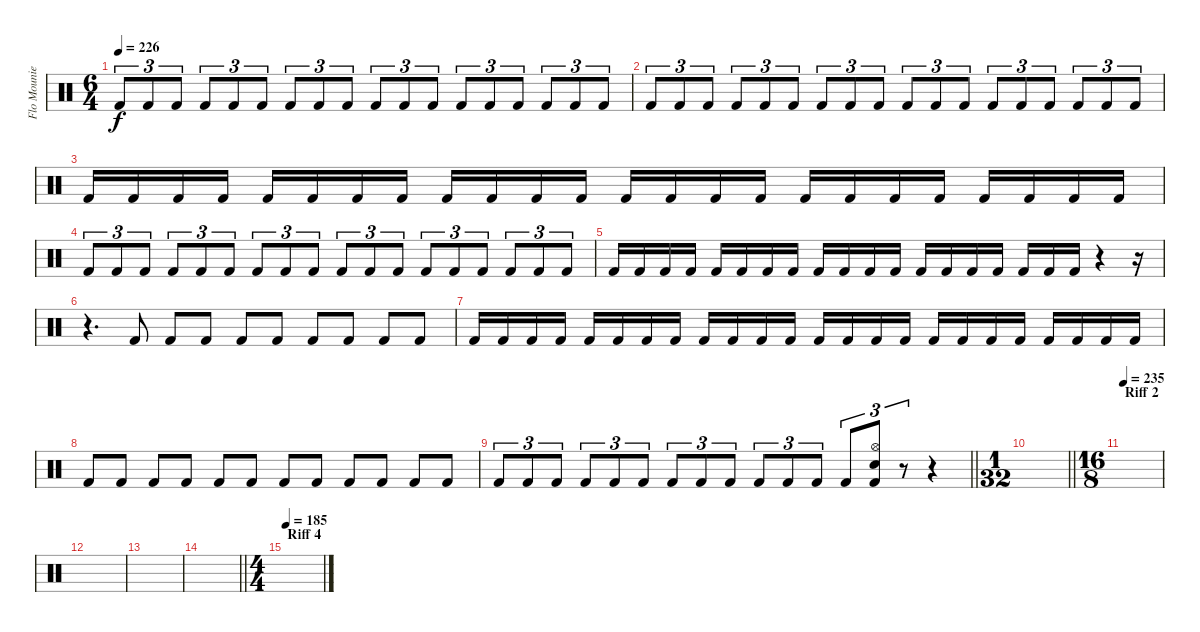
\track ("Flo Mounier " "Flo Mounie") {instrument percussion}
\staff {score}
\articulation defaults
\ts (6 4)
\tempo 226
\clef neutral
\ks c "Kick (hit) 2".8{tu (3 2) dy f} "Kick (hit) 2".8{tu (3 2)} "Kick (hit) 2".8{tu (3 2)} "Kick (hit) 2".8{tu (3 2)} "Kick (hit) 2".8{tu (3 2)} "Kick (hit) 2".8{tu (3 2)} "Kick (hit) 2".8{tu (3 2)} "Kick (hit) 2".8{tu (3 2)} "Kick (hit) 2".8{tu (3 2)} "Kick (hit) 2".8{tu (3 2)} "Kick (hit) 2".8{tu (3 2)} "Kick (hit) 2".8{tu (3 2)} "Kick (hit) 2".8{tu (3 2)} "Kick (hit) 2".8{tu (3 2)} "Kick (hit) 2".8{tu (3 2)} "Kick (hit) 2".8{tu (3 2)} "Kick (hit) 2".8{tu (3 2)} "Kick (hit) 2".8{tu (3 2)}
|
"Kick (hit) 2".8{tu (3 2)} "Kick (hit) 2".8{tu (3 2)} "Kick (hit) 2".8{tu (3 2)} "Kick (hit) 2".8{tu (3 2)} "Kick (hit) 2".8{tu (3 2)} "Kick (hit) 2".8{tu (3 2)} "Kick (hit) 2".8{tu (3 2)} "Kick (hit) 2".8{tu (3 2)} "Kick (hit) 2".8{tu (3 2)} "Kick (hit) 2".8{tu (3 2)} "Kick (hit) 2".8{tu (3 2)} "Kick (hit) 2".8{tu (3 2)} "Kick (hit) 2".8{tu (3 2)} "Kick (hit) 2".8{tu (3 2)} "Kick (hit) 2".8{tu (3 2)} "Kick (hit) 2".8{tu (3 2)} "Kick (hit) 2".8{tu (3 2)} "Kick (hit) 2".8{tu (3 2)} |
"Kick (hit) 2".16 "Kick (hit) 2".16 "Kick (hit) 2".16 "Kick (hit) 2".16 "Kick (hit) 2".16 "Kick (hit) 2".16 "Kick (hit) 2".16 "Kick (hit) 2".16 "Kick (hit) 2".16 "Kick (hit) 2".16 "Kick (hit) 2".16 "Kick (hit) 2".16 "Kick (hit) 2".16 "Kick (hit) 2".16 "Kick (hit) 2".16 "Kick (hit) 2".16 "Kick (hit) 2".16 "Kick (hit) 2".16 "Kick (hit) 2".16 "Kick (hit) 2".16 "Kick (hit) 2".16 "Kick (hit) 2".16 "Kick (hit) 2".16 "Kick (hit) 2".16 |
"Kick (hit) 2".8{tu (3 2)} "Kick (hit) 2".8{tu (3 2)} "Kick (hit) 2".8{tu (3 2)} "Kick (hit) 2".8{tu (3 2)} "Kick (hit) 2".8{tu (3 2)} "Kick (hit) 2".8{tu (3 2)} "Kick (hit) 2".8{tu (3 2)} "Kick (hit) 2".8{tu (3 2)} "Kick (hit) 2".8{tu (3 2)} "Kick (hit) 2".8{tu (3 2)} "Kick (hit) 2".8{tu (3 2)} "Kick (hit) 2".8{tu (3 2)} "Kick (hit) 2".8{tu (3 2)} "Kick (hit) 2".8{tu (3 2)} "Kick (hit) 2".8{tu (3 2)} "Kick (hit) 2".8{tu (3 2)} "Kick (hit) 2".8{tu (3 2)} "Kick (hit) 2".8{tu (3 2)} |
"Kick (hit) 2".16 "Kick (hit) 2".16 "Kick (hit) 2".16 "Kick (hit) 2".16 "Kick (hit) 2".16 "Kick (hit) 2".16 "Kick (hit) 2".16 "Kick (hit) 2".16 "Kick (hit) 2".16 "Kick (hit) 2".16 "Kick (hit) 2".16 "Kick (hit) 2".16 "Kick (hit) 2".16 "Kick (hit) 2".16 "Kick (hit) 2".16 "Kick (hit) 2".16 "Kick (hit) 2".16 "Kick (hit) 2".16 "Kick (hit) 2".16 r.4 r.16 |
r.4{d} "Kick (hit) 2".8 "Kick (hit) 2".8 "Kick (hit) 2".8 "Kick (hit) 2".8 "Kick (hit) 2".8 "Kick (hit) 2".8 "Kick (hit) 2".8 "Kick (hit) 2".8 "Kick (hit) 2".8 |
"Kick (hit) 2".16 "Kick (hit) 2".16 "Kick (hit) 2".16 "Kick (hit) 2".16 "Kick (hit) 2".16 "Kick (hit) 2".16 "Kick (hit) 2".16 "Kick (hit) 2".16 "Kick (hit) 2".16 "Kick (hit) 2".16 "Kick (hit) 2".16 "Kick (hit) 2".16 "Kick (hit) 2".16 "Kick (hit) 2".16 "Kick (hit) 2".16 "Kick (hit) 2".16 "Kick (hit) 2".16 "Kick (hit) 2".16 "Kick (hit) 2".16 "Kick (hit) 2".16 "Kick (hit) 2".16 "Kick (hit) 2".16 "Kick (hit) 2".16 "Kick (hit) 2".16 |
"Kick (hit) 2".8 "Kick (hit) 2".8 "Kick (hit) 2".8 "Kick (hit) 2".8 "Kick (hit) 2".8 "Kick (hit) 2".8 "Kick (hit) 2".8 "Kick (hit) 2".8 "Kick (hit) 2".8 "Kick (hit) 2".8 "Kick (hit) 2".8 "Kick (hit) 2".8 |
\barLineRight lightlight "Kick (hit) 2".8{tu (3 2)} "Kick (hit) 2".8{tu (3 2)} "Kick (hit) 2".8{tu (3 2)} "Kick (hit) 2".8{tu (3 2)} "Kick (hit) 2".8{tu (3 2)} "Kick (hit) 2".8{tu (3 2)} "Kick (hit) 2".8{tu (3 2)} "Kick (hit) 2".8{tu (3 2)} "Kick (hit) 2".8{tu (3 2)} "Kick (hit) 2".8{tu (3 2)} "Kick (hit) 2".8{tu (3 2)} "Kick (hit) 2".8{tu (3 2)} "Kick (hit) 2".8{tu (3 2)}
("Hi-Hat (open)" "Snare (hit) 2" "Kick (hit) 2").8{tu (3 2)} r.8{tu (3 2)} r.4 |
\ts (1 32)
\barLineRight lightlight
|
\ts (16 8)
\section ("" "Riff 2")
\tempo 235
|
|
|
\barLineRight lightlight
|
\ts (4 4)
\section ("" "Riff 4")
\tempo 185
